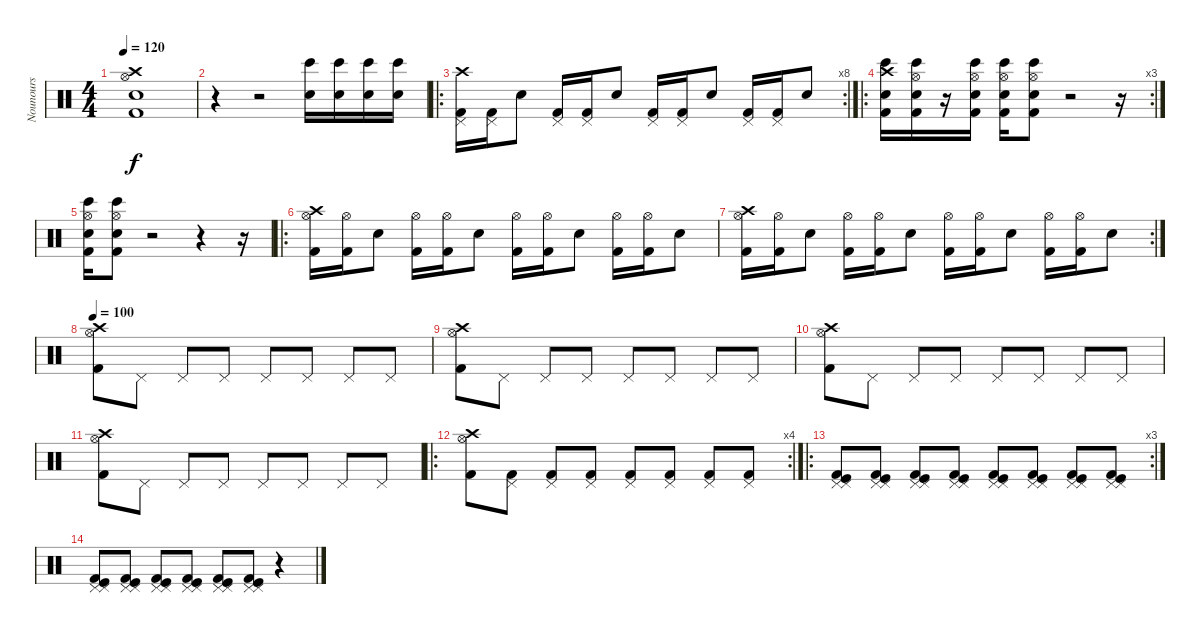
\track ("Nounours" "Nounours") {instrument percussion}
\staff {score}
\articulation defaults
\ts (4 4)
\tempo 120
\clef neutral
\ks c
("Crash high (hit)" "Hi-Hat (open)" "Electric Snare (hit)" "Kick (hit) 2").1{dy f} |
r.4 r.2 ("Bongo High (hit)" "Electric Snare (hit)").16 ("Bongo High (hit)" "Electric Snare (hit)").16 ("Bongo High (hit)" "Electric Snare (hit)").16 ("Bongo High (hit)" "Electric Snare (hit)").16 |
\ro
\rc 8
("Crash high (hit)" "Pedal Hi-Hat (hit)" "Kick (hit) 2").16 ("Pedal Hi-Hat (hit)" "Kick (hit) 2").16 "Electric Snare (hit)".8 ("Pedal Hi-Hat (hit)" "Kick (hit) 2").16 ("Pedal Hi-Hat (hit)" "Kick (hit) 2").16 "Electric Snare (hit)".8 ("Pedal Hi-Hat (hit)" "Kick (hit) 2").16 ("Pedal Hi-Hat (hit)" "Kick (hit) 2").16 "Electric Snare (hit)".8 ("Pedal Hi-Hat (hit)" "Kick (hit) 2").16 ("Pedal Hi-Hat (hit)" "Kick (hit) 2").16 "Electric Snare (hit)".8 |
\ro
\rc 3
("Crash high (hit)" "Bongo High (hit)" "Electric Snare (hit)" "Kick (hit) 2").16 ("Hi-Hat (open)" "Bongo High (hit)" "Electric Snare (hit)" "Kick (hit) 2").16 r.16 ("Hi-Hat (open)" "Bongo High (hit)" "Electric Snare (hit)" "Kick (hit) 2").16 ("Hi-Hat (open)" "Bongo High (hit)" "Electric Snare (hit)" "Kick (hit) 2").16 ("Hi-Hat (open)" "Bongo High (hit)" "Electric Snare (hit)" "Kick (hit) 2").8 r.2 r.16 |
("Hi-Hat (open)" "Bongo High (hit)" "Electric Snare (hit)" "Kick (hit) 2").16 ("Hi-Hat (open)" "Bongo High (hit)" "Electric Snare (hit)" "Kick (hit) 2").8 r.2 r.4 r.16 |
\ro
("Crash high (hit)" "Hi-Hat (open)" "Kick (hit) 2").16 ("Hi-Hat (open)" "Kick (hit) 2").16 "Electric Snare (hit)".8 ("Hi-Hat (open)" "Kick (hit) 2").16 ("Hi-Hat (open)" "Kick (hit) 2").16 "Electric Snare (hit)".8 ("Hi-Hat (open)" "Kick (hit) 2").16 ("Hi-Hat (open)" "Kick (hit) 2").16 "Electric Snare (hit)".8 ("Hi-Hat (open)" "Kick (hit) 2").16 ("Hi-Hat (open)" "Kick (hit) 2").16 "Electric Snare (hit)".8 |
\rc 2
("Crash high (hit)" "Hi-Hat (open)" "Kick (hit) 2").16 ("Hi-Hat (open)" "Kick (hit) 2").16 "Electric Snare (hit)".8 ("Hi-Hat (open)" "Kick (hit) 2").16 ("Hi-Hat (open)" "Kick (hit) 2").16 "Electric Snare (hit)".8 ("Hi-Hat (open)" "Kick (hit) 2").16 ("Hi-Hat (open)" "Kick (hit) 2").16 "Electric Snare (hit)".8 ("Hi-Hat (open)" "Kick (hit) 2").16 ("Hi-Hat (open)" "Kick (hit) 2").16 "Electric Snare (hit)".8 |
\tempo 100
("Crash high (hit)" "Hi-Hat (open)" "Kick (hit) 2").8 "Pedal Hi-Hat (hit)".8 "Pedal Hi-Hat (hit)".8 "Pedal Hi-Hat (hit)".8 "Pedal Hi-Hat (hit)".8 "Pedal Hi-Hat (hit)".8 "Pedal Hi-Hat (hit)".8 "Pedal Hi-Hat (hit)".8 |
("Crash high (hit)" "Hi-Hat (open)" "Kick (hit) 2").8 "Pedal Hi-Hat (hit)".8 "Pedal Hi-Hat (hit)".8 "Pedal Hi-Hat (hit)".8 "Pedal Hi-Hat (hit)".8 "Pedal Hi-Hat (hit)".8 "Pedal Hi-Hat (hit)".8 "Pedal Hi-Hat (hit)".8 |
("Crash high (hit)" "Hi-Hat (open)" "Kick (hit) 2").8 "Pedal Hi-Hat (hit)".8 "Pedal Hi-Hat (hit)".8 "Pedal Hi-Hat (hit)".8 "Pedal Hi-Hat (hit)".8 "Pedal Hi-Hat (hit)".8 "Pedal Hi-Hat (hit)".8 "Pedal Hi-Hat (hit)".8 |
("Crash high (hit)" "Hi-Hat (open)" "Kick (hit) 2").8 "Pedal Hi-Hat (hit)".8 "Pedal Hi-Hat (hit)".8 "Pedal Hi-Hat (hit)".8 "Pedal Hi-Hat (hit)".8 "Pedal Hi-Hat (hit)".8 "Pedal Hi-Hat (hit)".8 "Pedal Hi-Hat (hit)".8 |
\ro
\rc 4
("Crash high (hit)" "Hi-Hat (open)" "Kick (hit) 2").8 ("Pedal Hi-Hat (hit)" "Kick (hit) 2").8 ("Pedal Hi-Hat (hit)" "Kick (hit) 2").8 ("Pedal Hi-Hat (hit)" "Kick (hit) 2").8 ("Pedal Hi-Hat (hit)" "Kick (hit) 2").8 ("Pedal Hi-Hat (hit)" "Kick (hit) 2").8 ("Pedal Hi-Hat (hit)" "Kick (hit) 2").8 ("Pedal Hi-Hat (hit)" "Kick (hit) 2").8 |
\ro
\rc 3
("Pedal Hi-Hat (hit)" "Pedal Hi-Hat (hit)" "Kick (hit)" "Kick (hit) 2").8 ("Pedal Hi-Hat (hit)" "Pedal Hi-Hat (hit)" "Kick (hit)" "Kick (hit) 2").8 ("Pedal Hi-Hat (hit)" "Pedal Hi-Hat (hit)" "Kick (hit)" "Kick (hit) 2").8 ("Pedal Hi-Hat (hit)" "Pedal Hi-Hat (hit)" "Kick (hit)" "Kick (hit) 2").8 ("Pedal Hi-Hat (hit)" "Pedal Hi-Hat (hit)" "Kick (hit)" "Kick (hit) 2").8 ("Pedal Hi-Hat (hit)" "Pedal Hi-Hat (hit)" "Kick (hit)" "Kick (hit) 2").8 ("Pedal Hi-Hat (hit)" "Pedal Hi-Hat (hit)" "Kick (hit)" "Kick (hit) 2").8 ("Pedal Hi-Hat (hit)" "Pedal Hi-Hat (hit)" "Kick (hit)" "Kick (hit) 2").8 |
("Pedal Hi-Hat (hit)" "Pedal Hi-Hat (hit)" "Kick (hit)" "Kick (hit) 2").8 ("Pedal Hi-Hat (hit)" "Pedal Hi-Hat (hit)" "Kick (hit)" "Kick (hit) 2").8 ("Pedal Hi-Hat (hit)" "Pedal Hi-Hat (hit)" "Kick (hit)" "Kick (hit) 2").8 ("Pedal Hi-Hat (hit)" "Pedal Hi-Hat (hit)" "Kick (hit)" "Kick (hit) 2").8 ("Pedal Hi-Hat (hit)" "Pedal Hi-Hat (hit)" "Kick (hit)" "Kick (hit) 2").8 ("Pedal Hi-Hat (hit)" "Pedal Hi-Hat (hit)" "Kick (hit)" "Kick (hit) 2").8 r.4
